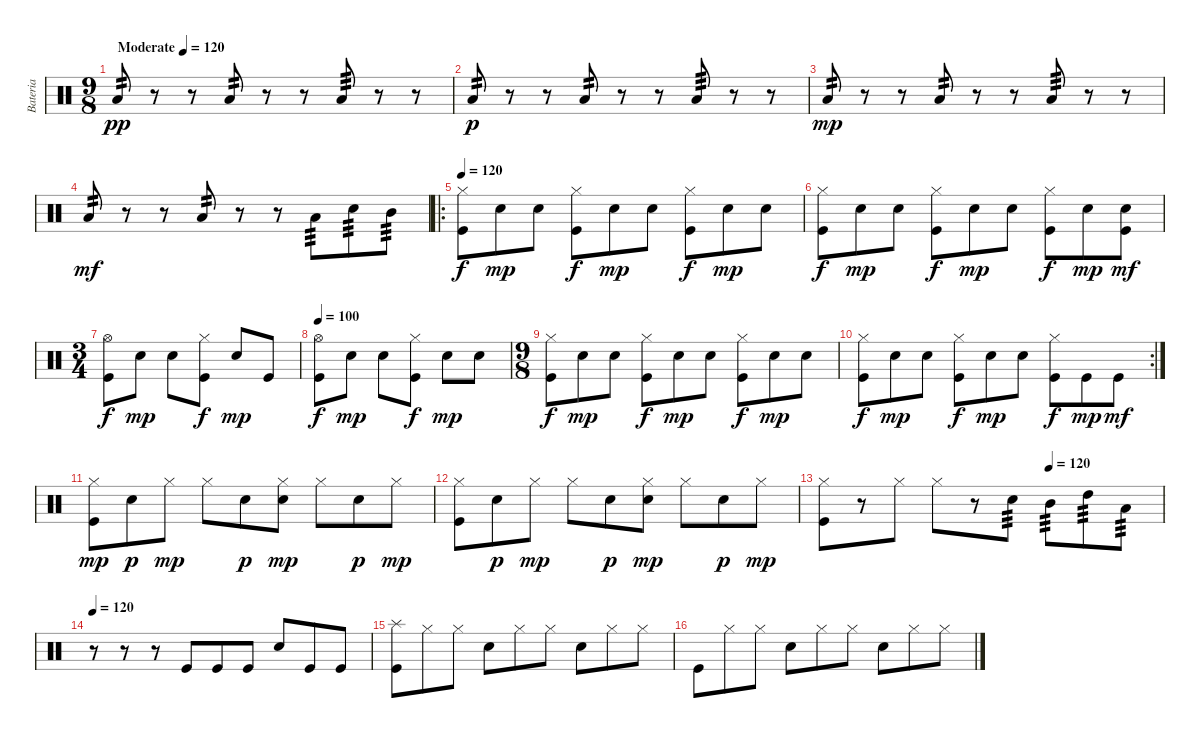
\track ("Bateria" "Bateria") {instrument percussion}
\staff {score}
\articulation defaults
\ts (9 8)
\tempo (120 "Moderate")
\clef neutral
\ks c "Low Tom (hit)".8{tp 2 dy pp}
r.8 r.8 "Low Tom (hit)".8{tp 2} r.8 r.8 "Low Tom (hit)".8{tp 3} r.8 r.8 |
"Low Tom (hit)".8{tp 2 dy p} r.8 r.8 "Low Tom (hit)".8{tp 2} r.8 r.8 "Low Tom (hit)".8{tp 3} r.8 r.8 |
"Low Tom (hit)".8{tp 2 dy mp} r.8 r.8 "Low Tom (hit)".8{tp 2} r.8 r.8 "Low Tom (hit)".8{tp 3} r.8 r.8 |
"Low Tom (hit)".8{tp 2 dy mf} r.8 r.8 "Low Tom (hit)".8{tp 2} r.8 r.8 "Low Tom (hit)".8{tp 3} "Snare (hit) 2".8{tp 3} "Mid Tom (hit)".8{tp 3} |
\ro
\tempo 120
("Hi-Hat (closed)" "Kick (hit)").8{dy f} "Snare (hit) 2".8{dy mp} "Snare (hit) 2".8 ("Hi-Hat (closed)" "Kick (hit)").8{dy f} "Snare (hit) 2".8{dy mp} "Snare (hit) 2".8 ("Hi-Hat (closed)" "Kick (hit)").8{dy f} "Snare (hit) 2".8{dy mp} "Snare (hit) 2".8 |
("Hi-Hat (closed)" "Kick (hit)").8{dy f} "Snare (hit) 2".8{dy mp} "Snare (hit) 2".8 ("Hi-Hat (closed)" "Kick (hit)").8{dy f} "Snare (hit) 2".8{dy mp} "Snare (hit) 2".8 ("Hi-Hat (closed)" "Kick (hit)").8{dy f} "Snare (hit) 2".8{dy mp} ("Snare (hit) 2" "Kick (hit)").8{dy mf} |
\ts (3 4)
("Hi-Hat (open)" "Kick (hit)").8{dy f} "Snare (hit) 2".8{dy mp} "Snare (hit) 2".8 ("Hi-Hat (closed)" "Kick (hit)").8{dy f} "Snare (hit) 2".8{dy mp} "Kick (hit)".8 |
\tempo 100
("Hi-Hat (open)" "Kick (hit)").8{dy f} "Snare (hit) 2".8{dy mp} "Snare (hit) 2".8 ("Hi-Hat (closed)" "Kick (hit)").8{dy f} "Snare (hit) 2".8{dy mp} "Snare (hit) 2".8 |
\ts (9 8)
("Hi-Hat (closed)" "Kick (hit)").8{dy f} "Snare (hit) 2".8{dy mp} "Snare (hit) 2".8 ("Hi-Hat (closed)" "Kick (hit)").8{dy f} "Snare (hit) 2".8{dy mp} "Snare (hit) 2".8 ("Hi-Hat (closed)" "Kick (hit)").8{dy f} "Snare (hit) 2".8{dy mp} "Snare (hit) 2".8 |
\rc 2
("Hi-Hat (closed)" "Kick (hit)").8{dy f} "Snare (hit) 2".8{dy mp} "Snare (hit) 2".8 ("Hi-Hat (closed)" "Kick (hit)").8{dy f} "Snare (hit) 2".8{dy mp} "Snare (hit) 2".8 ("Hi-Hat (closed)" "Kick (hit)").8{dy f} "Kick (hit)".8{dy mp} "Kick (hit)".8{dy mf} |
("Hi-Hat (closed)" "Kick (hit)").8{dy mp} "Snare (hit) 2".8{dy p} "Hi-Hat (closed)".8{dy mp} "Hi-Hat (closed)".8 "Snare (hit) 2".8{dy p} ("Hi-Hat (closed)" "Snare (hit) 2").8{dy mp} "Hi-Hat (closed)".8 "Snare (hit) 2".8{dy p} "Hi-Hat (closed)".8{dy mp} |
("Hi-Hat (closed)" "Kick (hit)").8 "Snare (hit) 2".8{dy p} "Hi-Hat (closed)".8{dy mp} "Hi-Hat (closed)".8 "Snare (hit) 2".8{dy p} ("Hi-Hat (closed)" "Snare (hit) 2").8{dy mp} "Hi-Hat (closed)".8 "Snare (hit) 2".8{dy p} "Hi-Hat (closed)".8{dy mp} |
\tempo (120 0.6666666666666666)
("Hi-Hat (closed)" "Kick (hit)").8 r.8 "Hi-Hat (closed)".8 "Hi-Hat (closed)".8 r.8 "Snare (hit) 2".8{tp 3} "Mid Tom (hit)".8{tp 3} "High Tom (hit)".8{tp 3} "Low Tom (hit)".8{tp 3} |
\tempo 120
r.8 r.8 r.8 "Kick (hit)".8 "Kick (hit)".8 "Kick (hit)".8 "Snare (hit) 2".8 "Kick (hit)".8 "Kick (hit)".8 |
("Splash (hit)" "Kick (hit)").8 "Hi-Hat (closed)".8 "Hi-Hat (closed)".8 "Snare (hit) 2".8 "Hi-Hat (closed)".8 "Hi-Hat (closed)".8 "Snare (hit) 2".8 "Hi-Hat (closed)".8 "Hi-Hat (closed)".8 |
"Kick (hit)".8 "Hi-Hat (closed)".8 "Hi-Hat (closed)".8 "Snare (hit) 2".8 "Hi-Hat (closed)".8 "Hi-Hat (closed)".8 "Snare (hit) 2".8 "Hi-Hat (closed)".8 "Hi-Hat (closed)".8
